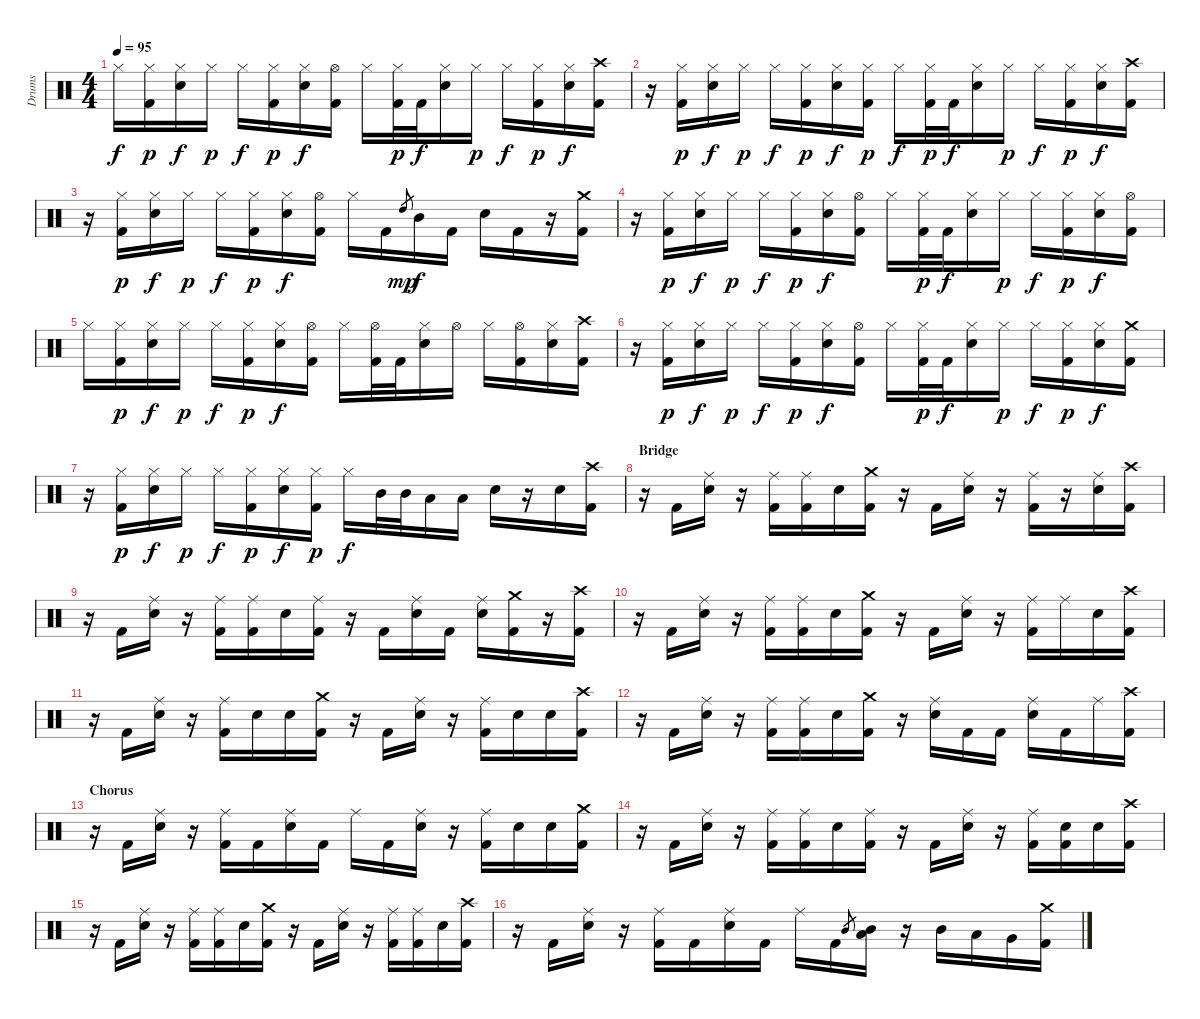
\track ("Drums" "Drums") {instrument percussion}
\staff {score}
\articulation defaults
\ts (4 4)
\tempo 95
\clef neutral
\ks c "Hi-Hat (closed)".16{dy f}
("Hi-Hat (closed)" "Kick (hit) 2").16{dy p} ("Hi-Hat (closed)" "Snare (hit) 2").16{dy f} "Hi-Hat (closed)".16{dy p} "Hi-Hat (closed)".16{dy f} ("Hi-Hat (closed)" "Kick (hit) 2").16{dy p} ("Hi-Hat (closed)" "Snare (hit) 2").16{dy f} ("Hi-Hat (open)" "Kick (hit) 2").16 "Hi-Hat (closed)".16 ("Hi-Hat (closed)" "Kick (hit) 2").32{dy p} "Kick (hit) 2".32{dy f} ("Hi-Hat (closed)" "Snare (hit) 2").16 "Hi-Hat (closed)".16{dy p} "Hi-Hat (closed)".16{dy f} ("Hi-Hat (closed)" "Kick (hit) 2").16{dy p} ("Hi-Hat (closed)" "Snare (hit) 2").16{dy f} ("Crash high (hit)" "Kick (hit) 2").16 |
r.16 ("Hi-Hat (closed)" "Kick (hit) 2").16{dy p} ("Hi-Hat (closed)" "Snare (hit) 2").16{dy f} "Hi-Hat (closed)".16{dy p} "Hi-Hat (closed)".16{dy f} ("Hi-Hat (closed)" "Kick (hit) 2").16{dy p} ("Hi-Hat (closed)" "Snare (hit) 2").16{dy f} ("Hi-Hat (closed)" "Kick (hit) 2").16{dy p} "Hi-Hat (closed)".16{dy f} ("Hi-Hat (closed)" "Kick (hit) 2").32{dy p} "Kick (hit) 2".32{dy f} ("Hi-Hat (closed)" "Snare (hit) 2").16 "Hi-Hat (closed)".16{dy p} "Hi-Hat (closed)".16{dy f} ("Hi-Hat (closed)" "Kick (hit) 2").16{dy p} ("Hi-Hat (closed)" "Snare (hit) 2").16{dy f} ("Crash high (hit)" "Kick (hit) 2").16 |
r.16 ("Hi-Hat (closed)" "Kick (hit) 2").16{dy p} ("Hi-Hat (closed)" "Snare (hit) 2").16{dy f} "Hi-Hat (closed)".16{dy p} "Hi-Hat (closed)".16{dy f} ("Hi-Hat (closed)" "Kick (hit) 2").16{dy p} ("Hi-Hat (closed)" "Snare (hit) 2").16{dy f} ("Hi-Hat (open)" "Kick (hit) 2").16 "Hi-Hat (closed)".16 "Kick (hit) 2".16 "High Tom (hit)".8{gr dy mp} "Mid Tom (hit)".16{dy f} "Kick (hit) 2".16 "Snare (hit) 2".16 "Kick (hit) 2".16 r.16 ("Crash medium (hit)" "Kick (hit) 2").16 |
r.16 ("Hi-Hat (closed)" "Kick (hit) 2").16{dy p} ("Hi-Hat (closed)" "Snare (hit) 2").16{dy f} "Hi-Hat (closed)".16{dy p} "Hi-Hat (closed)".16{dy f} ("Hi-Hat (closed)" "Kick (hit) 2").16{dy p} ("Hi-Hat (closed)" "Snare (hit) 2").16{dy f} ("Hi-Hat (open)" "Kick (hit) 2").16 "Hi-Hat (closed)".16 ("Hi-Hat (closed)" "Kick (hit) 2").32{dy p} "Kick (hit) 2".32{dy f} ("Hi-Hat (closed)" "Snare (hit) 2").16 "Hi-Hat (closed)".16{dy p} "Hi-Hat (closed)".16{dy f} ("Hi-Hat (closed)" "Kick (hit) 2").16{dy p} ("Hi-Hat (closed)" "Snare (hit) 2").16{dy f} ("Hi-Hat (open)" "Kick (hit) 2").16 |
"Hi-Hat (closed)".16 ("Hi-Hat (closed)" "Kick (hit) 2").16{dy p} ("Hi-Hat (closed)" "Snare (hit) 2").16{dy f} "Hi-Hat (closed)".16{dy p} "Hi-Hat (closed)".16{dy f} ("Hi-Hat (closed)" "Kick (hit) 2").16{dy p} ("Hi-Hat (closed)" "Snare (hit) 2").16{dy f} ("Hi-Hat (open)" "Kick (hit) 2").16 "Hi-Hat (closed)".16 ("Hi-Hat (open)" "Kick (hit) 2").32 "Kick (hit) 2".32 ("Hi-Hat (closed)" "Snare (hit) 2").16 "Hi-Hat (open)".16 "Hi-Hat (closed)".16 ("Hi-Hat (open)" "Kick (hit) 2").16 ("Hi-Hat (closed)" "Snare (hit) 2").16 ("Crash high (hit)" "Kick (hit) 2").16 |
r.16 ("Hi-Hat (closed)" "Kick (hit) 2").16{dy p} ("Hi-Hat (closed)" "Snare (hit) 2").16{dy f} "Hi-Hat (closed)".16{dy p} "Hi-Hat (closed)".16{dy f} ("Hi-Hat (closed)" "Kick (hit) 2").16{dy p} ("Hi-Hat (closed)" "Snare (hit) 2").16{dy f} ("Hi-Hat (open)" "Kick (hit) 2").16 "Hi-Hat (closed)".16 ("Hi-Hat (closed)" "Kick (hit) 2").32{dy p} "Kick (hit) 2".32{dy f} ("Hi-Hat (closed)" "Snare (hit) 2").16 "Hi-Hat (closed)".16{dy p} "Hi-Hat (closed)".16{dy f} ("Hi-Hat (closed)" "Kick (hit) 2").16{dy p} ("Hi-Hat (closed)" "Snare (hit) 2").16{dy f} ("Crash medium (hit)" "Kick (hit) 2").16 |
r.16 ("Hi-Hat (closed)" "Kick (hit) 2").16{dy p} ("Hi-Hat (closed)" "Snare (hit) 2").16{dy f} "Hi-Hat (closed)".16{dy p} "Hi-Hat (closed)".16{dy f} ("Hi-Hat (closed)" "Kick (hit) 2").16{dy p} ("Hi-Hat (closed)" "Snare (hit) 2").16{dy f} ("Hi-Hat (closed)" "Kick (hit) 2").16{dy p} "Hi-Hat (closed)".16{dy f} "Mid Tom (hit)".32 "Mid Tom (hit)".32 "Low Tom (hit)".16 "Low Tom (hit)".16 "Snare (hit) 2".16 r.16 "Snare (hit) 2".16 ("Crash high (hit)" "Kick (hit) 2").16 |
\section ("" "Bridge")
r.16 "Kick (hit) 2".16 ("Ride (middle)" "Snare (hit) 2").16 r.16 ("Ride (middle)" "Kick (hit) 2").16 ("Ride (middle)" "Kick (hit) 2").16 "Snare (hit) 2".16 ("Crash medium (hit)" "Kick (hit) 2").16 r.16 "Kick (hit) 2".16 ("Ride (middle)" "Snare (hit) 2").16 r.16 ("Ride (middle)" "Kick (hit) 2").16 r.16 ("Ride (middle)" "Snare (hit) 2").16 ("Crash high (hit)" "Kick (hit) 2").16 |
r.16 "Kick (hit) 2".16 ("Ride (middle)" "Snare (hit) 2").16 r.16 ("Ride (middle)" "Kick (hit) 2").16 ("Ride (middle)" "Kick (hit) 2").16 "Snare (hit) 2".16 ("Ride (middle)" "Kick (hit) 2").16 r.16 "Kick (hit) 2".16 ("Ride (middle)" "Snare (hit) 2").16 "Kick (hit) 2".16 ("Ride (middle)" "Snare (hit) 2").16 ("Crash medium (hit)" "Kick (hit) 2").16 r.16 ("Crash high (hit)" "Kick (hit) 2").16 |
r.16 "Kick (hit) 2".16 ("Ride (middle)" "Snare (hit) 2").16 r.16 ("Ride (middle)" "Kick (hit) 2").16 ("Ride (middle)" "Kick (hit) 2").16 "Snare (hit) 2".16 ("Crash medium (hit)" "Kick (hit) 2").16 r.16 "Kick (hit) 2".16 ("Ride (middle)" "Snare (hit) 2").16 r.16 ("Ride (middle)" "Kick (hit) 2").16 "Ride (middle)".16 "Snare (hit) 2".16 ("Crash high (hit)" "Kick (hit) 2").16 |
r.16 "Kick (hit) 2".16 ("Ride (middle)" "Snare (hit) 2").16 r.16 ("Ride (middle)" "Kick (hit) 2").16 "Snare (hit) 2".16 "Snare (hit) 2".16 ("Crash medium (hit)" "Kick (hit) 2").16 r.16 "Kick (hit) 2".16 ("Ride (middle)" "Snare (hit) 2").16 r.16 ("Ride (middle)" "Kick (hit) 2").16 "Snare (hit) 2".16 "Snare (hit) 2".16 ("Crash high (hit)" "Kick (hit) 2").16 |
r.16 "Kick (hit) 2".16 ("Ride (middle)" "Snare (hit) 2").16 r.16 ("Ride (middle)" "Kick (hit) 2").16 ("Ride (middle)" "Kick (hit) 2").16 "Snare (hit) 2".16 ("Crash medium (hit)" "Kick (hit) 2").16 r.16 ("Ride (middle)" "Snare (hit) 2").16 "Kick (hit) 2".16 "Kick (hit) 2".16 ("Ride (middle)" "Snare (hit) 2").16 "Kick (hit) 2".16 "Ride (middle)".16 ("Crash high (hit)" "Kick (hit) 2").16 |
\section ("" "Chorus")
r.16 "Kick (hit) 2".16 ("Ride (middle)" "Snare (hit) 2").16 r.16 ("Ride (middle)" "Kick (hit) 2").16 "Kick (hit) 2".16 ("Ride (middle)" "Snare (hit) 2").16 "Kick (hit) 2".16 "Ride (middle)".16 "Kick (hit) 2".16 ("Ride (middle)" "Snare (hit) 2").16 r.16 ("Ride (middle)" "Kick (hit) 2").16 "Snare (hit) 2".16 "Snare (hit) 2".16 ("Crash medium (hit)" "Kick (hit) 2").16 |
r.16 "Kick (hit) 2".16 ("Ride (middle)" "Snare (hit) 2").16 r.16 ("Ride (middle)" "Kick (hit) 2").16 ("Ride (middle)" "Kick (hit) 2").16 "Snare (hit) 2".16 ("Ride (middle)" "Kick (hit) 2").16 r.16 "Kick (hit) 2".16 ("Ride (middle)" "Snare (hit) 2").16 r.16 ("Ride (middle)" "Kick (hit) 2").16 ("Snare (hit) 2" "Kick (hit) 2").16 "Snare (hit) 2".16 ("Crash high (hit)" "Kick (hit) 2").16 |
r.16 "Kick (hit) 2".16 ("Ride (middle)" "Snare (hit) 2").16 r.16 ("Ride (middle)" "Kick (hit) 2").16 ("Ride (middle)" "Kick (hit) 2").16 "Snare (hit) 2".16 ("Crash medium (hit)" "Kick (hit) 2").16 r.16 "Kick (hit) 2".16 ("Ride (middle)" "Snare (hit) 2").16 r.16 ("Ride (middle)" "Kick (hit) 2").16 ("Ride (middle)" "Kick (hit) 2").16 "Snare (hit) 2".16 ("Crash high (hit)" "Kick (hit) 2").16 |
r.16 "Kick (hit) 2".16 ("Ride (middle)" "Snare (hit) 2").16 r.16 ("Ride (middle)" "Kick (hit) 2").16 "Kick (hit) 2".16 ("Ride (middle)" "Snare (hit) 2").16 "Kick (hit) 2".16 "Ride (middle)".16 "Kick (hit) 2".16 "Mid Tom (hit)".8{gr} ("Mid Tom (hit)" "Low Tom (hit)").16 r.16 "Mid Tom (hit)".16 "Low Tom (hit)".16 "Very Low Tom (hit)".16 ("Crash medium (hit)" "Kick (hit) 2").16
